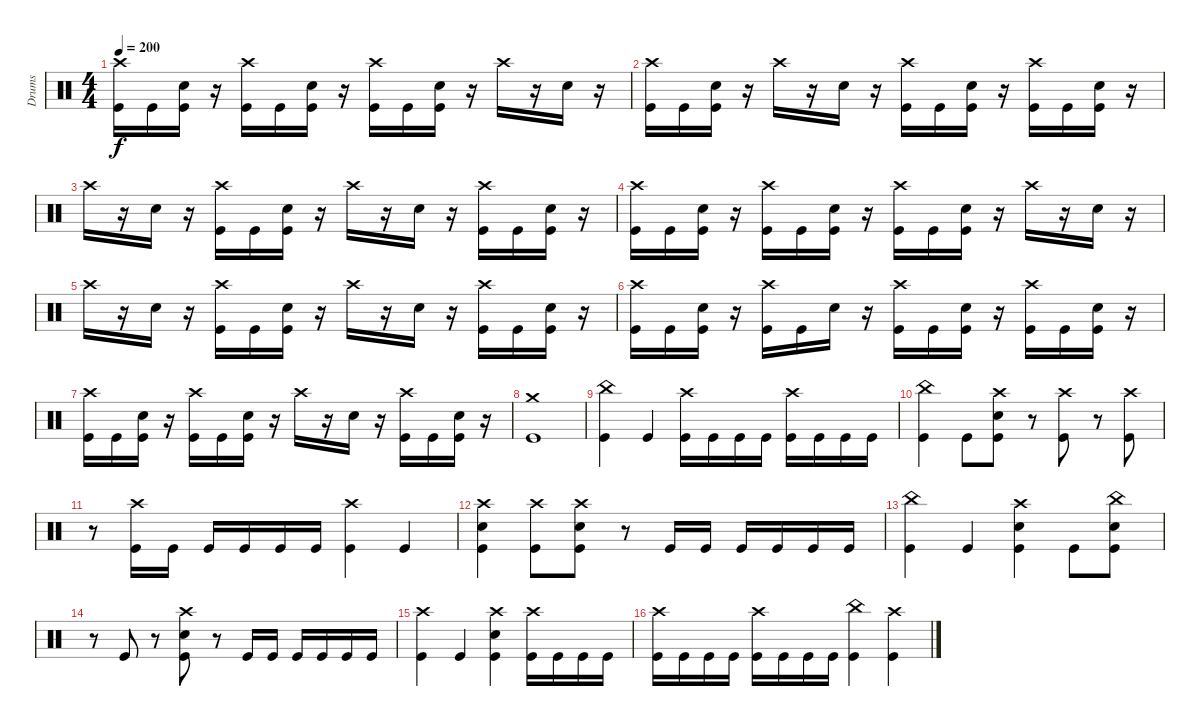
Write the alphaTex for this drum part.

\track ("Drums" "Drums") {instrument percussion}
\staff {score}
\articulation defaults
\ts (4 4)
\tempo 200
\clef neutral
\ks c
("Crash high (hit)" "Kick (hit)").16{dy f} "Kick (hit)".16 ("Snare (hit) 2" "Kick (hit)").16 r.16 ("Crash high (hit)" "Kick (hit)").16 "Kick (hit)".16 ("Snare (hit) 2" "Kick (hit)").16 r.16 ("Crash high (hit)" "Kick (hit)").16 "Kick (hit)".16 ("Snare (hit) 2" "Kick (hit)").16 r.16 "Crash high (hit)".16 r.16 "Snare (hit) 2".16 r.16 |
("Crash high (hit)" "Kick (hit)").16 "Kick (hit)".16 ("Snare (hit) 2" "Kick (hit)").16 r.16 "Crash high (hit)".16 r.16 "Snare (hit) 2".16 r.16 ("Crash high (hit)" "Kick (hit)").16 "Kick (hit)".16 ("Snare (hit) 2" "Kick (hit)").16 r.16 ("Crash high (hit)" "Kick (hit)").16 "Kick (hit)".16 ("Snare (hit) 2" "Kick (hit)").16 r.16 |
"Crash high (hit)".16 r.16 "Snare (hit) 2".16 r.16 ("Crash high (hit)" "Kick (hit)").16 "Kick (hit)".16 ("Snare (hit) 2" "Kick (hit)").16 r.16 "Crash high (hit)".16 r.16 "Snare (hit) 2".16 r.16 ("Crash high (hit)" "Kick (hit)").16 "Kick (hit)".16 ("Snare (hit) 2" "Kick (hit)").16 r.16 |
("Crash high (hit)" "Kick (hit)").16 "Kick (hit)".16 ("Snare (hit) 2" "Kick (hit)").16 r.16 ("Crash high (hit)" "Kick (hit)").16 "Kick (hit)".16 ("Snare (hit) 2" "Kick (hit)").16 r.16 ("Crash high (hit)" "Kick (hit)").16 "Kick (hit)".16 ("Snare (hit) 2" "Kick (hit)").16 r.16 "Crash high (hit)".16 r.16 "Snare (hit) 2".16 r.16 |
"Crash high (hit)".16 r.16 "Snare (hit) 2".16 r.16 ("Crash high (hit)" "Kick (hit)").16 "Kick (hit)".16 ("Snare (hit) 2" "Kick (hit)").16 r.16 "Crash high (hit)".16 r.16 "Snare (hit) 2".16 r.16 ("Crash high (hit)" "Kick (hit)").16 "Kick (hit)".16 ("Snare (hit) 2" "Kick (hit)").16 r.16 |
("Crash high (hit)" "Kick (hit)").16 "Kick (hit)".16 ("Snare (hit) 2" "Kick (hit)").16 r.16 ("Crash high (hit)" "Kick (hit)").16 "Kick (hit)".16 "Snare (hit) 2".16 r.16 ("Crash high (hit)" "Kick (hit)").16 "Kick (hit)".16 ("Snare (hit) 2" "Kick (hit)").16 r.16 ("Crash high (hit)" "Kick (hit)").16 "Kick (hit)".16 ("Snare (hit) 2" "Kick (hit)").16 r.16 |
("Crash high (hit)" "Kick (hit)").16 "Kick (hit)".16 ("Snare (hit) 2" "Kick (hit)").16 r.16 ("Crash high (hit)" "Kick (hit)").16 "Kick (hit)".16 ("Snare (hit) 2" "Kick (hit)").16 r.16 "Crash high (hit)".16 r.16 "Snare (hit) 2".16 r.16 ("Crash high (hit)" "Kick (hit)").16 "Kick (hit)".16 ("Snare (hit) 2" "Kick (hit)").16 r.16 |
("Crash medium (hit)" "Kick (hit)").1 |
("China (hit)" "Kick (hit)").4 "Kick (hit)".4 ("Crash high (hit)" "Kick (hit)").16 "Kick (hit)".16 "Kick (hit)".16 "Kick (hit)".16 ("Crash high (hit)" "Kick (hit)").16 "Kick (hit)".16 "Kick (hit)".16 "Kick (hit)".16 |
("China (hit)" "Kick (hit)").4 "Kick (hit)".8 ("Crash high (hit)" "Snare (hit) 2" "Kick (hit)").8 r.8 ("Crash high (hit)" "Kick (hit)").8 r.8 ("Crash high (hit)" "Kick (hit)").8 |
r.8 ("Crash high (hit)" "Kick (hit)").16 "Kick (hit)".16 "Kick (hit)".16 "Kick (hit)".16 "Kick (hit)".16 "Kick (hit)".16 ("Crash high (hit)" "Kick (hit)").4 "Kick (hit)".4 |
("Crash high (hit)" "Snare (hit) 2" "Kick (hit)").4 ("Crash high (hit)" "Kick (hit)").8 ("Crash high (hit)" "Snare (hit) 2" "Kick (hit)").8 r.8 "Kick (hit)".16 "Kick (hit)".16 "Kick (hit)".16 "Kick (hit)".16 "Kick (hit)".16 "Kick (hit)".16 |
("China (hit)" "Kick (hit)").4 "Kick (hit)".4 ("Crash high (hit)" "Snare (hit) 2" "Kick (hit)").4 "Kick (hit)".8 ("China (hit)" "Snare (hit) 2" "Kick (hit)").8 |
r.8 "Kick (hit)".8 r.8 ("Crash high (hit)" "Snare (hit) 2" "Kick (hit)").8 r.8 "Kick (hit)".16 "Kick (hit)".16 "Kick (hit)".16 "Kick (hit)".16 "Kick (hit)".16 "Kick (hit)".16 |
("Crash high (hit)" "Kick (hit)").4 "Kick (hit)".4 ("Crash high (hit)" "Snare (hit) 2" "Kick (hit)").4 ("Crash high (hit)" "Kick (hit)").16 "Kick (hit)".16 "Kick (hit)".16 "Kick (hit)".16 |
("Crash high (hit)" "Kick (hit)").16 "Kick (hit)".16 "Kick (hit)".16 "Kick (hit)".16 ("Crash high (hit)" "Kick (hit)").16 "Kick (hit)".16 "Kick (hit)".16 "Kick (hit)".16 ("China (hit)" "Kick (hit)").4 ("Crash high (hit)" "Kick (hit)").4
